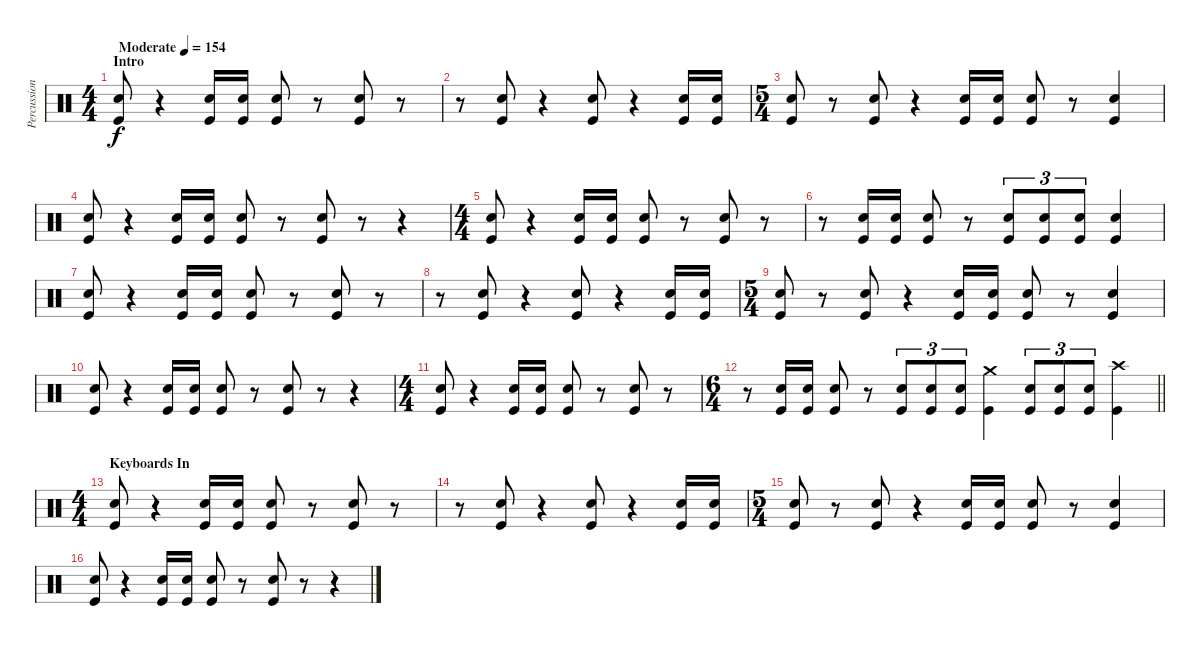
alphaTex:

\track ("Percussion" "Percussion") {instrument percussion}
\staff {score}
\articulation defaults
\ts (4 4)
\section ("" "Intro")
\tempo (154 "Moderate")
\clef neutral
\ks c
("Snare (hit) 2" "Kick (hit)").8{dy f} r.4 ("Snare (hit) 2" "Kick (hit)").16 ("Snare (hit) 2" "Kick (hit)").16 ("Snare (hit) 2" "Kick (hit)").8 r.8 ("Snare (hit) 2" "Kick (hit)").8 r.8 |
r.8 ("Snare (hit) 2" "Kick (hit)").8 r.4 ("Snare (hit) 2" "Kick (hit)").8 r.4 ("Snare (hit) 2" "Kick (hit)").16 ("Snare (hit) 2" "Kick (hit)").16 |
\ts (5 4)
("Snare (hit) 2" "Kick (hit)").8 r.8 ("Snare (hit) 2" "Kick (hit)").8 r.4 ("Snare (hit) 2" "Kick (hit)").16 ("Snare (hit) 2" "Kick (hit)").16 ("Snare (hit) 2" "Kick (hit)").8 r.8 ("Snare (hit) 2" "Kick (hit)").4 |
("Snare (hit) 2" "Kick (hit)").8 r.4 ("Snare (hit) 2" "Kick (hit)").16 ("Snare (hit) 2" "Kick (hit)").16 ("Snare (hit) 2" "Kick (hit)").8 r.8 ("Snare (hit) 2" "Kick (hit)").8 r.8 r.4 |
\ts (4 4)
("Snare (hit) 2" "Kick (hit)").8 r.4 ("Snare (hit) 2" "Kick (hit)").16 ("Snare (hit) 2" "Kick (hit)").16 ("Snare (hit) 2" "Kick (hit)").8 r.8 ("Snare (hit) 2" "Kick (hit)").8 r.8 |
r.8 ("Snare (hit) 2" "Kick (hit)").16 ("Snare (hit) 2" "Kick (hit)").16 ("Snare (hit) 2" "Kick (hit)").8 r.8 ("Snare (hit) 2" "Kick (hit)").8{tu (3 2)} ("Snare (hit) 2" "Kick (hit)").8{tu (3 2)} ("Snare (hit) 2" "Kick (hit)").8{tu (3 2)} ("Snare (hit) 2" "Kick (hit)").4 |
("Snare (hit) 2" "Kick (hit)").8 r.4 ("Snare (hit) 2" "Kick (hit)").16 ("Snare (hit) 2" "Kick (hit)").16 ("Snare (hit) 2" "Kick (hit)").8 r.8 ("Snare (hit) 2" "Kick (hit)").8 r.8 |
r.8 ("Snare (hit) 2" "Kick (hit)").8 r.4 ("Snare (hit) 2" "Kick (hit)").8 r.4 ("Snare (hit) 2" "Kick (hit)").16 ("Snare (hit) 2" "Kick (hit)").16 |
\ts (5 4)
("Snare (hit) 2" "Kick (hit)").8 r.8 ("Snare (hit) 2" "Kick (hit)").8 r.4 ("Snare (hit) 2" "Kick (hit)").16 ("Snare (hit) 2" "Kick (hit)").16 ("Snare (hit) 2" "Kick (hit)").8 r.8 ("Snare (hit) 2" "Kick (hit)").4 |
("Snare (hit) 2" "Kick (hit)").8 r.4 ("Snare (hit) 2" "Kick (hit)").16 ("Snare (hit) 2" "Kick (hit)").16 ("Snare (hit) 2" "Kick (hit)").8 r.8 ("Snare (hit) 2" "Kick (hit)").8 r.8 r.4 |
\ts (4 4)
("Snare (hit) 2" "Kick (hit)").8 r.4 ("Snare (hit) 2" "Kick (hit)").16 ("Snare (hit) 2" "Kick (hit)").16 ("Snare (hit) 2" "Kick (hit)").8 r.8 ("Snare (hit) 2" "Kick (hit)").8 r.8 |
\ts (6 4)
\barLineRight lightlight
r.8 ("Snare (hit) 2" "Kick (hit)").16 ("Snare (hit) 2" "Kick (hit)").16 ("Snare (hit) 2" "Kick (hit)").8 r.8 ("Snare (hit) 2" "Kick (hit)").8{tu (3 2)} ("Snare (hit) 2" "Kick (hit)").8{tu (3 2)} ("Snare (hit) 2" "Kick (hit)").8{tu (3 2)} ("Crash medium (hit)" "Kick (hit)").4 ("Snare (hit) 2" "Kick (hit)").8{tu (3 2)} ("Snare (hit) 2" "Kick (hit)").8{tu (3 2)} ("Snare (hit) 2" "Kick (hit)").8{tu (3 2)} ("Crash high (hit)" "Kick (hit)").4 |
\ts (4 4)
\section ("" "Keyboards In")
("Snare (hit) 2" "Kick (hit)").8 r.4 ("Snare (hit) 2" "Kick (hit)").16 ("Snare (hit) 2" "Kick (hit)").16 ("Snare (hit) 2" "Kick (hit)").8 r.8 ("Snare (hit) 2" "Kick (hit)").8 r.8 |
r.8 ("Snare (hit) 2" "Kick (hit)").8 r.4 ("Snare (hit) 2" "Kick (hit)").8 r.4 ("Snare (hit) 2" "Kick (hit)").16 ("Snare (hit) 2" "Kick (hit)").16 |
\ts (5 4)
("Snare (hit) 2" "Kick (hit)").8 r.8 ("Snare (hit) 2" "Kick (hit)").8 r.4 ("Snare (hit) 2" "Kick (hit)").16 ("Snare (hit) 2" "Kick (hit)").16 ("Snare (hit) 2" "Kick (hit)").8 r.8 ("Snare (hit) 2" "Kick (hit)").4 |
("Snare (hit) 2" "Kick (hit)").8 r.4 ("Snare (hit) 2" "Kick (hit)").16 ("Snare (hit) 2" "Kick (hit)").16 ("Snare (hit) 2" "Kick (hit)").8 r.8 ("Snare (hit) 2" "Kick (hit)").8 r.8 r.4
